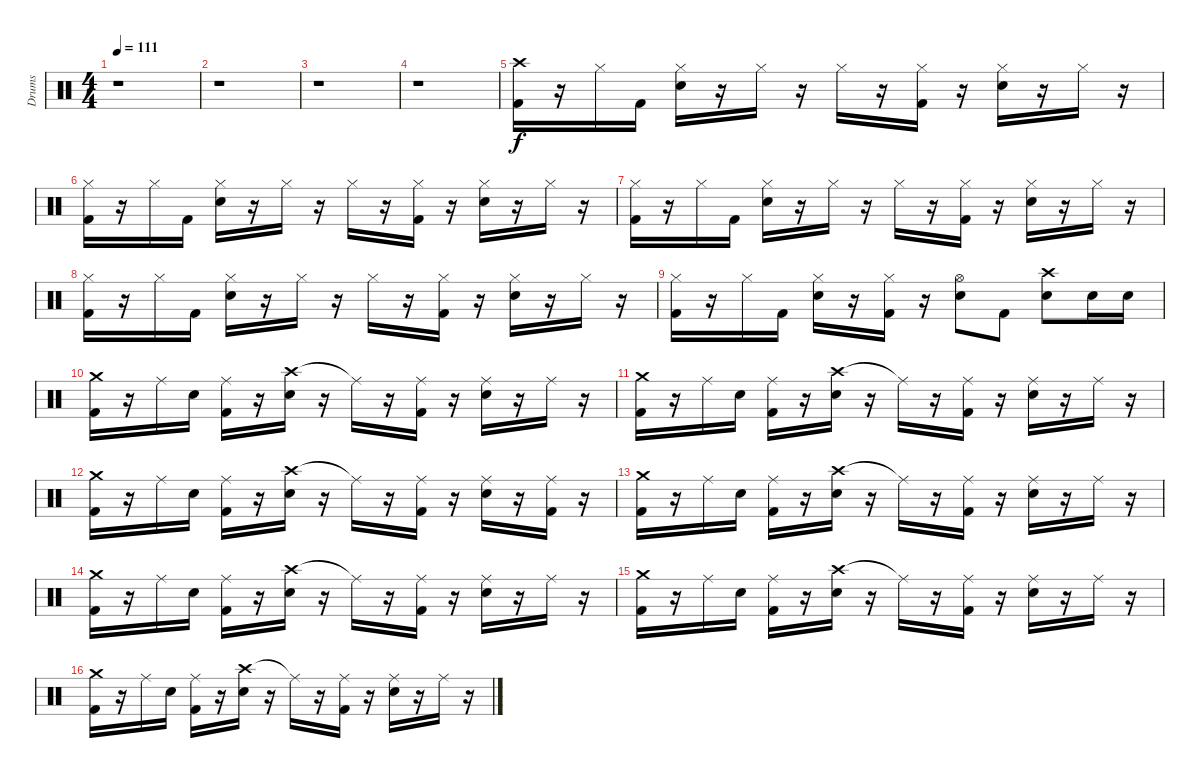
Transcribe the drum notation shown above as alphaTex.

\track ("Drums" "Drums") {instrument percussion}
\staff {score}
\articulation defaults
\ts (4 4)
\tempo 111
\clef neutral
\ks c
r.1{dy f} |
r.1 |
r.1 |
r.1 |
("Crash high (hit)" "Kick (hit) 2").16 r.16 "Hi-Hat (closed)".16 "Kick (hit) 2".16 ("Hi-Hat (closed)" "Snare (hit) 2").16 r.16 "Hi-Hat (closed)".16 r.16 "Hi-Hat (closed)".16 r.16 ("Hi-Hat (closed)" "Kick (hit) 2").16 r.16 ("Hi-Hat (closed)" "Snare (hit) 2").16 r.16 "Hi-Hat (closed)".16 r.16 |
("Hi-Hat (closed)" "Kick (hit) 2").16 r.16 "Hi-Hat (closed)".16 "Kick (hit) 2".16 ("Hi-Hat (closed)" "Snare (hit) 2").16 r.16 "Hi-Hat (closed)".16 r.16 "Hi-Hat (closed)".16 r.16 ("Hi-Hat (closed)" "Kick (hit) 2").16 r.16 ("Hi-Hat (closed)" "Snare (hit) 2").16 r.16 "Hi-Hat (closed)".16 r.16 |
("Hi-Hat (closed)" "Kick (hit) 2").16 r.16 "Hi-Hat (closed)".16 "Kick (hit) 2".16 ("Hi-Hat (closed)" "Snare (hit) 2").16 r.16 "Hi-Hat (closed)".16 r.16 "Hi-Hat (closed)".16 r.16 ("Hi-Hat (closed)" "Kick (hit) 2").16 r.16 ("Hi-Hat (closed)" "Snare (hit) 2").16 r.16 "Hi-Hat (closed)".16 r.16 |
("Hi-Hat (closed)" "Kick (hit) 2").16 r.16 "Hi-Hat (closed)".16 "Kick (hit) 2".16 ("Hi-Hat (closed)" "Snare (hit) 2").16 r.16 "Hi-Hat (closed)".16 r.16 "Hi-Hat (closed)".16 r.16 ("Hi-Hat (closed)" "Kick (hit) 2").16 r.16 ("Hi-Hat (closed)" "Snare (hit) 2").16 r.16 "Hi-Hat (closed)".16 r.16 |
("Hi-Hat (closed)" "Kick (hit) 2").16 r.16 "Hi-Hat (closed)".16 "Kick (hit) 2".16 ("Hi-Hat (closed)" "Snare (hit) 2").16 r.16 ("Hi-Hat (closed)" "Kick (hit) 2").16 r.16 ("Hi-Hat (open)" "Snare (hit) 2").8 "Kick (hit) 2".8 ("Crash high (hit)" "Snare (hit) 2").8 "Snare (hit) 2".16 "Snare (hit) 2".16 |
("Crash medium (hit)" "Kick (hit) 2").16 r.16 "Ride (middle)".16 "Snare (hit) 2".16 ("Ride (middle)" "Kick (hit) 2").16 r.16 ("Crash high (hit)" "Snare (hit) 2").16 r.16 "Ride (middle)"{t}.16 r.16 ("Ride (middle)" "Kick (hit) 2").16 r.16 ("Ride (middle)" "Snare (hit) 2").16 r.16 "Ride (middle)".16 r.16 |
("Crash medium (hit)" "Kick (hit) 2").16 r.16 "Ride (middle)".16 "Snare (hit) 2".16 ("Ride (middle)" "Kick (hit) 2").16 r.16 ("Crash high (hit)" "Snare (hit) 2").16 r.16 "Ride (middle)"{t}.16 r.16 ("Ride (middle)" "Kick (hit) 2").16 r.16 ("Ride (middle)" "Snare (hit) 2").16 r.16 "Ride (middle)".16 r.16 |
("Crash medium (hit)" "Kick (hit) 2").16 r.16 "Ride (middle)".16 "Snare (hit) 2".16 ("Ride (middle)" "Kick (hit) 2").16 r.16 ("Crash high (hit)" "Snare (hit) 2").16 r.16 "Ride (middle)"{t}.16 r.16 ("Ride (middle)" "Kick (hit) 2").16 r.16 ("Ride (middle)" "Snare (hit) 2").16 r.16 ("Ride (middle)" "Kick (hit) 2").16 r.16 |
("Crash medium (hit)" "Kick (hit) 2").16 r.16 "Ride (middle)".16 "Snare (hit) 2".16 ("Ride (middle)" "Kick (hit) 2").16 r.16 ("Crash high (hit)" "Snare (hit) 2").16 r.16 "Ride (middle)"{t}.16 r.16 ("Ride (middle)" "Kick (hit) 2").16 r.16 ("Ride (middle)" "Snare (hit) 2").16 r.16 "Ride (middle)".16 r.16 |
("Crash medium (hit)" "Kick (hit) 2").16 r.16 "Ride (middle)".16 "Snare (hit) 2".16 ("Ride (middle)" "Kick (hit) 2").16 r.16 ("Crash high (hit)" "Snare (hit) 2").16 r.16 "Ride (middle)"{t}.16 r.16 ("Ride (middle)" "Kick (hit) 2").16 r.16 ("Ride (middle)" "Snare (hit) 2").16 r.16 "Ride (middle)".16 r.16 |
("Crash medium (hit)" "Kick (hit) 2").16 r.16 "Ride (middle)".16 "Snare (hit) 2".16 ("Ride (middle)" "Kick (hit) 2").16 r.16 ("Crash high (hit)" "Snare (hit) 2").16 r.16 "Ride (middle)"{t}.16 r.16 ("Ride (middle)" "Kick (hit) 2").16 r.16 ("Ride (middle)" "Snare (hit) 2").16 r.16 "Ride (middle)".16 r.16 |
("Crash medium (hit)" "Kick (hit) 2").16 r.16 "Ride (middle)".16 "Snare (hit) 2".16 ("Ride (middle)" "Kick (hit) 2").16 r.16 ("Crash high (hit)" "Snare (hit) 2").16 r.16 "Ride (middle)"{t}.16 r.16 ("Ride (middle)" "Kick (hit) 2").16 r.16 ("Ride (middle)" "Snare (hit) 2").16 r.16 "Ride (middle)".16 r.16
